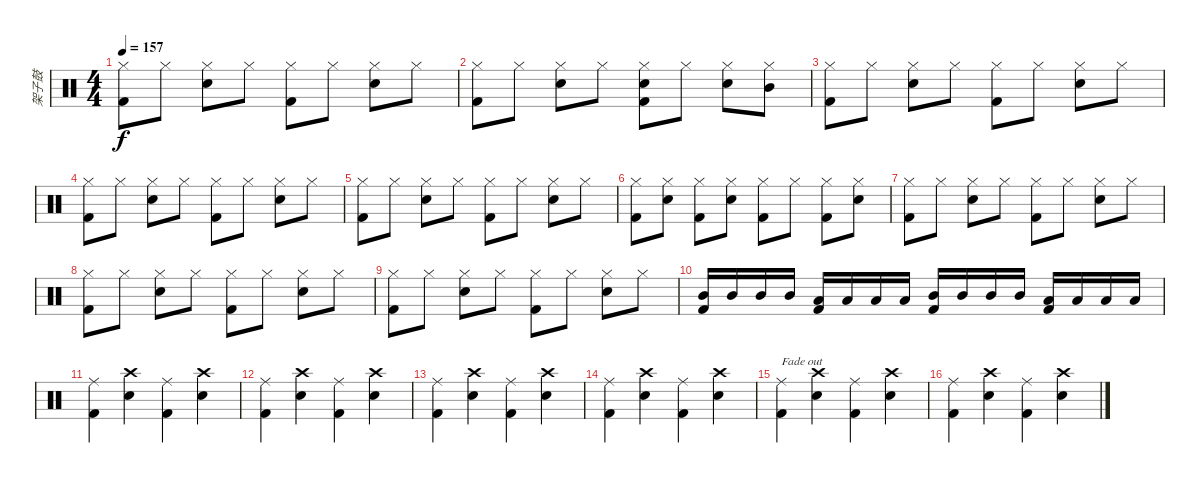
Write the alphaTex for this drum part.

\track ("架子鼓" "架子鼓") {instrument percussion}
\staff {score}
\articulation defaults
\ts (4 4)
\tempo 157
\clef neutral
\ks c
("Hi-Hat (closed)" "Kick (hit) 2").8{dy f} "Hi-Hat (closed)".8 ("Hi-Hat (closed)" "Snare (hit) 2").8 "Hi-Hat (closed)".8 ("Hi-Hat (closed)" "Kick (hit) 2").8 "Hi-Hat (closed)".8 ("Hi-Hat (closed)" "Snare (hit) 2").8 "Hi-Hat (closed)".8 |
("Hi-Hat (closed)" "Kick (hit) 2").8 "Hi-Hat (closed)".8 ("Hi-Hat (closed)" "Snare (hit) 2").8 "Hi-Hat (closed)".8 ("Hi-Hat (closed)" "Snare (hit) 2" "Kick (hit) 2").8 "Hi-Hat (closed)".8 ("Hi-Hat (closed)" "Snare (hit) 2").8 ("Hi-Hat (closed)" "Mid Tom (hit)").8 |
("Hi-Hat (closed)" "Kick (hit) 2").8 "Hi-Hat (closed)".8 ("Hi-Hat (closed)" "Snare (hit) 2").8 "Hi-Hat (closed)".8 ("Hi-Hat (closed)" "Kick (hit) 2").8 "Hi-Hat (closed)".8 ("Hi-Hat (closed)" "Snare (hit) 2").8 "Hi-Hat (closed)".8 |
("Hi-Hat (closed)" "Kick (hit) 2").8 "Hi-Hat (closed)".8 ("Hi-Hat (closed)" "Snare (hit) 2").8 "Hi-Hat (closed)".8 ("Hi-Hat (closed)" "Kick (hit) 2").8 "Hi-Hat (closed)".8 ("Hi-Hat (closed)" "Snare (hit) 2").8 "Hi-Hat (closed)".8 |
("Hi-Hat (closed)" "Kick (hit) 2").8 "Hi-Hat (closed)".8 ("Hi-Hat (closed)" "Snare (hit) 2").8 "Hi-Hat (closed)".8 ("Hi-Hat (closed)" "Kick (hit) 2").8 "Hi-Hat (closed)".8 ("Hi-Hat (closed)" "Snare (hit) 2").8 "Hi-Hat (closed)".8 |
("Hi-Hat (closed)" "Kick (hit) 2").8 ("Hi-Hat (closed)" "Snare (hit) 2").8 ("Hi-Hat (closed)" "Kick (hit) 2").8 ("Hi-Hat (closed)" "Snare (hit) 2").8 ("Hi-Hat (closed)" "Kick (hit) 2").8 "Hi-Hat (closed)".8 ("Hi-Hat (closed)" "Kick (hit) 2").8 ("Hi-Hat (closed)" "Snare (hit) 2").8 |
("Hi-Hat (closed)" "Kick (hit) 2").8 "Hi-Hat (closed)".8 ("Hi-Hat (closed)" "Snare (hit) 2").8 "Hi-Hat (closed)".8 ("Hi-Hat (closed)" "Kick (hit) 2").8 "Hi-Hat (closed)".8 ("Hi-Hat (closed)" "Snare (hit) 2").8 "Hi-Hat (closed)".8 |
("Hi-Hat (closed)" "Kick (hit) 2").8 "Hi-Hat (closed)".8 ("Hi-Hat (closed)" "Snare (hit) 2").8 "Hi-Hat (closed)".8 ("Hi-Hat (closed)" "Kick (hit) 2").8 "Hi-Hat (closed)".8 ("Hi-Hat (closed)" "Snare (hit) 2").8 "Hi-Hat (closed)".8 |
("Hi-Hat (closed)" "Kick (hit) 2").8 "Hi-Hat (closed)".8 ("Hi-Hat (closed)" "Snare (hit) 2").8 "Hi-Hat (closed)".8 ("Hi-Hat (closed)" "Kick (hit) 2").8 "Hi-Hat (closed)".8 ("Hi-Hat (closed)" "Snare (hit) 2").8 "Hi-Hat (closed)".8 |
("Mid Tom (hit)" "Kick (hit) 2").16 "Mid Tom (hit)".16 "Mid Tom (hit)".16 "Mid Tom (hit)".16 ("Low Tom (hit)" "Kick (hit) 2").16 "Low Tom (hit)".16 "Low Tom (hit)".16 "Low Tom (hit)".16 ("Mid Tom (hit)" "Kick (hit) 2").16 "Mid Tom (hit)".16 "Mid Tom (hit)".16 "Mid Tom (hit)".16 ("Low Tom (hit)" "Kick (hit) 2").16 "Low Tom (hit)".16 "Low Tom (hit)".16 "Low Tom (hit)".16 |
("Ride (middle)" "Kick (hit) 2").4 ("Crash high (hit)" "Snare (hit) 2").4 ("Ride (middle)" "Kick (hit) 2").4 ("Crash high (hit)" "Snare (hit) 2").4 |
("Ride (middle)" "Kick (hit) 2").4 ("Crash high (hit)" "Snare (hit) 2").4 ("Ride (middle)" "Kick (hit) 2").4 ("Crash high (hit)" "Snare (hit) 2").4 |
("Ride (middle)" "Kick (hit) 2").4 ("Crash high (hit)" "Snare (hit) 2").4 ("Ride (middle)" "Kick (hit) 2").4 ("Crash high (hit)" "Snare (hit) 2").4 |
("Ride (middle)" "Kick (hit) 2").4 ("Crash high (hit)" "Snare (hit) 2").4 ("Ride (middle)" "Kick (hit) 2").4 ("Crash high (hit)" "Snare (hit) 2").4 |
("Ride (middle)" "Kick (hit) 2").4{txt "Fade out" volume 6} ("Crash high (hit)" "Snare (hit) 2").4 ("Ride (middle)" "Kick (hit) 2").4 ("Crash high (hit)" "Snare (hit) 2").4 |
("Ride (middle)" "Kick (hit) 2").4 ("Crash high (hit)" "Snare (hit) 2").4 ("Ride (middle)" "Kick (hit) 2").4 ("Crash high (hit)" "Snare (hit) 2").4
